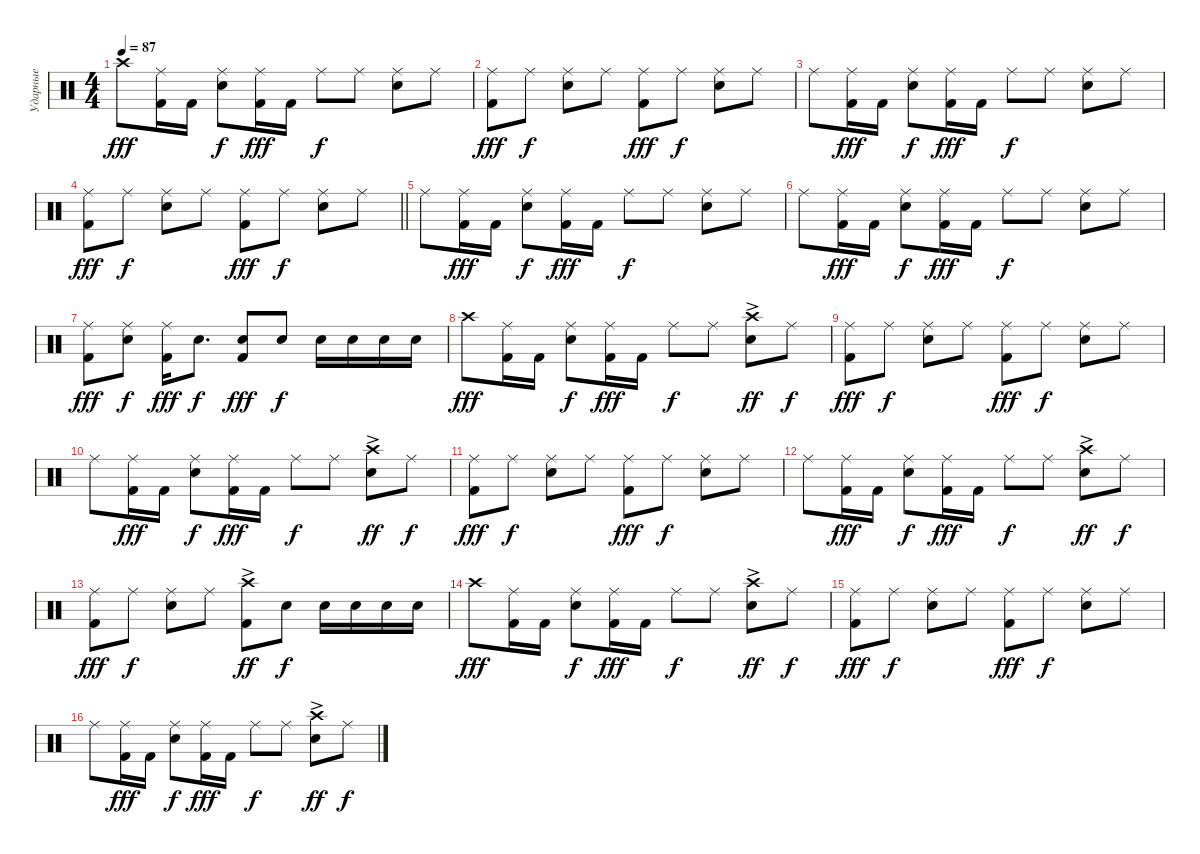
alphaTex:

\track ("Ударные" "Ударные") {instrument percussion}
\staff {score}
\articulation defaults
\ts (4 4)
\tempo 87
\clef neutral
\ks c "Crash high (hit)".8{dy fff}
("Kick (hit) 2" "Ride (middle)").16 "Kick (hit) 2".16 ("Snare (hit) 2" "Ride (middle)").8{dy f} ("Kick (hit) 2" "Ride (middle)").16{dy fff} "Kick (hit) 2".16 "Ride (middle)".8{dy f} "Ride (middle)".8 ("Snare (hit) 2" "Ride (middle)").8 "Ride (middle)".8 |
("Kick (hit) 2" "Ride (middle)").8{dy fff} "Ride (middle)".8{dy f} ("Snare (hit) 2" "Ride (middle)").8 "Ride (middle)".8 ("Kick (hit) 2" "Ride (middle)").8{dy fff} "Ride (middle)".8{dy f} ("Snare (hit) 2" "Ride (middle)").8 "Ride (middle)".8 |
"Ride (middle)".8 ("Kick (hit) 2" "Ride (middle)").16{dy fff} "Kick (hit) 2".16 ("Snare (hit) 2" "Ride (middle)").8{dy f} ("Kick (hit) 2" "Ride (middle)").16{dy fff} "Kick (hit) 2".16 "Ride (middle)".8{dy f} "Ride (middle)".8 ("Snare (hit) 2" "Ride (middle)").8 "Ride (middle)".8 |
\barLineRight lightlight
("Kick (hit) 2" "Ride (middle)").8{dy fff} "Ride (middle)".8{dy f} ("Snare (hit) 2" "Ride (middle)").8 "Ride (middle)".8 ("Kick (hit) 2" "Ride (middle)").8{dy fff} "Ride (middle)".8{dy f} ("Snare (hit) 2" "Ride (middle)").8 "Ride (middle)".8 |
"Ride (middle)".8 ("Kick (hit) 2" "Ride (middle)").16{dy fff} "Kick (hit) 2".16 ("Snare (hit) 2" "Ride (middle)").8{dy f} ("Kick (hit) 2" "Ride (middle)").16{dy fff} "Kick (hit) 2".16 "Ride (middle)".8{dy f} "Ride (middle)".8 ("Snare (hit) 2" "Ride (middle)").8 "Ride (middle)".8 |
"Ride (middle)".8 ("Kick (hit) 2" "Ride (middle)").16{dy fff} "Kick (hit) 2".16 ("Snare (hit) 2" "Ride (middle)").8{dy f} ("Kick (hit) 2" "Ride (middle)").16{dy fff} "Kick (hit) 2".16 "Ride (middle)".8{dy f} "Ride (middle)".8 ("Snare (hit) 2" "Ride (middle)").8 "Ride (middle)".8 |
("Kick (hit) 2" "Ride (middle)").8{dy fff} ("Snare (hit) 2" "Ride (middle)").8{dy f} ("Kick (hit) 2" "Ride (middle)").16{dy fff} "Snare (hit) 2".8{d dy f} ("Kick (hit) 2" "Snare (hit) 2").8{dy fff} "Snare (hit) 2".8{dy f} "Snare (hit) 2".16 "Snare (hit) 2".16 "Snare (hit) 2".16 "Snare (hit) 2".16 |
"Crash high (hit)".8{dy fff} ("Kick (hit) 2" "Ride (middle)").16 "Kick (hit) 2".16 ("Snare (hit) 2" "Ride (middle)").8{dy f} ("Kick (hit) 2" "Ride (middle)").16{dy fff} "Kick (hit) 2".16 "Ride (middle)".8{dy f} "Ride (middle)".8 ("Snare (hit) 2" "Crash high (hit)"{ac}).8{dy ff} "Ride (middle)".8{dy f} |
("Kick (hit) 2" "Ride (middle)").8{dy fff} "Ride (middle)".8{dy f} ("Snare (hit) 2" "Ride (middle)").8 "Ride (middle)".8 ("Kick (hit) 2" "Ride (middle)").8{dy fff} "Ride (middle)".8{dy f} ("Snare (hit) 2" "Ride (middle)").8 "Ride (middle)".8 |
"Ride (middle)".8 ("Kick (hit) 2" "Ride (middle)").16{dy fff} "Kick (hit) 2".16 ("Snare (hit) 2" "Ride (middle)").8{dy f} ("Kick (hit) 2" "Ride (middle)").16{dy fff} "Kick (hit) 2".16 "Ride (middle)".8{dy f} "Ride (middle)".8 ("Snare (hit) 2" "Crash high (hit)"{ac}).8{dy ff} "Ride (middle)".8{dy f} |
("Kick (hit) 2" "Ride (middle)").8{dy fff} "Ride (middle)".8{dy f} ("Snare (hit) 2" "Ride (middle)").8 "Ride (middle)".8 ("Kick (hit) 2" "Ride (middle)").8{dy fff} "Ride (middle)".8{dy f} ("Snare (hit) 2" "Ride (middle)").8 "Ride (middle)".8 |
"Ride (middle)".8 ("Kick (hit) 2" "Ride (middle)").16{dy fff} "Kick (hit) 2".16 ("Snare (hit) 2" "Ride (middle)").8{dy f} ("Kick (hit) 2" "Ride (middle)").16{dy fff} "Kick (hit) 2".16 "Ride (middle)".8{dy f} "Ride (middle)".8 ("Snare (hit) 2" "Crash high (hit)"{ac}).8{dy ff} "Ride (middle)".8{dy f} |
("Kick (hit) 2" "Ride (middle)").8{dy fff} "Ride (middle)".8{dy f} ("Snare (hit) 2" "Ride (middle)").8 "Ride (middle)".8 ("Kick (hit) 2" "Crash high (hit)"{ac}).8{dy ff} "Snare (hit) 2".8{dy f} "Snare (hit) 2".16 "Snare (hit) 2".16 "Snare (hit) 2".16 "Snare (hit) 2".16 |
"Crash high (hit)".8{dy fff} ("Kick (hit) 2" "Ride (middle)").16 "Kick (hit) 2".16 ("Snare (hit) 2" "Ride (middle)").8{dy f} ("Kick (hit) 2" "Ride (middle)").16{dy fff} "Kick (hit) 2".16 "Ride (middle)".8{dy f} "Ride (middle)".8 ("Snare (hit) 2" "Crash high (hit)"{ac}).8{dy ff} "Ride (middle)".8{dy f} |
("Kick (hit) 2" "Ride (middle)").8{dy fff} "Ride (middle)".8{dy f} ("Snare (hit) 2" "Ride (middle)").8 "Ride (middle)".8 ("Kick (hit) 2" "Ride (middle)").8{dy fff} "Ride (middle)".8{dy f} ("Snare (hit) 2" "Ride (middle)").8 "Ride (middle)".8 |
"Ride (middle)".8 ("Kick (hit) 2" "Ride (middle)").16{dy fff} "Kick (hit) 2".16 ("Snare (hit) 2" "Ride (middle)").8{dy f} ("Kick (hit) 2" "Ride (middle)").16{dy fff} "Kick (hit) 2".16 "Ride (middle)".8{dy f} "Ride (middle)".8 ("Snare (hit) 2" "Crash high (hit)"{ac}).8{dy ff} "Ride (middle)".8{dy f}
